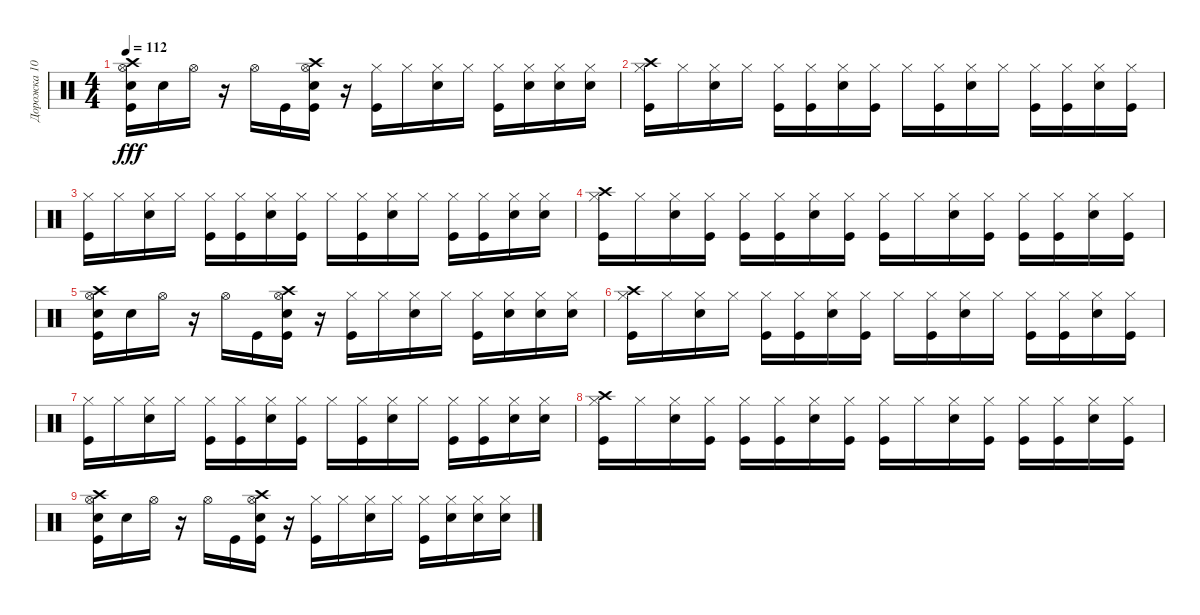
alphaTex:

\track ("Дорожка 10" "Дорожка 10") {instrument percussion}
\staff {score}
\articulation defaults
\ts (4 4)
\tempo 112
\clef neutral
\ks c
("Kick (hit)" "Electric Snare (hit)" "Crash high (hit)" "Hi-Hat (open)").16{dy fff} "Electric Snare (hit)".16 "Hi-Hat (open)".16 r.16 "Hi-Hat (open)".16 "Kick (hit)".16 ("Crash high (hit)" "Electric Snare (hit)" "Kick (hit)" "Hi-Hat (open)").16 r.16 ("Kick (hit)" "Hi-Hat (closed)").16 "Hi-Hat (closed)".16 ("Electric Snare (hit)" "Hi-Hat (closed)").16 "Hi-Hat (closed)".16 ("Hi-Hat (closed)" "Kick (hit)").16 ("Electric Snare (hit)" "Hi-Hat (closed)").16 ("Electric Snare (hit)" "Hi-Hat (closed)").16 ("Electric Snare (hit)" "Hi-Hat (closed)").16 |
("Crash high (hit)" "Hi-Hat (closed)" "Kick (hit)").16 "Hi-Hat (closed)".16 ("Electric Snare (hit)" "Hi-Hat (closed)").16 "Hi-Hat (closed)".16 ("Kick (hit)" "Hi-Hat (closed)").16 ("Hi-Hat (closed)" "Kick (hit)").16 ("Electric Snare (hit)" "Hi-Hat (closed)").16 ("Kick (hit)" "Hi-Hat (closed)").16 "Hi-Hat (closed)".16 ("Hi-Hat (closed)" "Kick (hit)").16 ("Hi-Hat (closed)" "Electric Snare (hit)").16 "Hi-Hat (closed)".16 ("Kick (hit)" "Hi-Hat (closed)").16 ("Kick (hit)" "Hi-Hat (closed)").16 ("Electric Snare (hit)" "Hi-Hat (closed)").16 ("Kick (hit)" "Hi-Hat (closed)").16 |
("Kick (hit)" "Hi-Hat (closed)").16 "Hi-Hat (closed)".16 ("Electric Snare (hit)" "Hi-Hat (closed)").16 "Hi-Hat (closed)".16 ("Hi-Hat (closed)" "Kick (hit)").16 ("Kick (hit)" "Hi-Hat (closed)").16 ("Hi-Hat (closed)" "Electric Snare (hit)").16 ("Hi-Hat (closed)" "Kick (hit)").16 "Hi-Hat (closed)".16 ("Hi-Hat (closed)" "Kick (hit)").16 ("Hi-Hat (closed)" "Electric Snare (hit)").16 "Hi-Hat (closed)".16 ("Kick (hit)" "Hi-Hat (closed)").16 ("Kick (hit)" "Hi-Hat (closed)").16 ("Electric Snare (hit)" "Hi-Hat (closed)").16 ("Electric Snare (hit)" "Hi-Hat (closed)").16 |
("Kick (hit)" "Hi-Hat (closed)" "Crash high (hit)").16 "Hi-Hat (closed)".16 ("Hi-Hat (closed)" "Electric Snare (hit)").16 ("Kick (hit)" "Hi-Hat (closed)").16 ("Kick (hit)" "Hi-Hat (closed)").16 ("Hi-Hat (closed)" "Kick (hit)").16 ("Hi-Hat (closed)" "Electric Snare (hit)").16 ("Hi-Hat (closed)" "Kick (hit)").16 ("Hi-Hat (closed)" "Kick (hit)").16 "Hi-Hat (closed)".16 ("Hi-Hat (closed)" "Electric Snare (hit)").16 ("Hi-Hat (closed)" "Kick (hit)").16 ("Kick (hit)" "Hi-Hat (closed)").16 ("Kick (hit)" "Hi-Hat (closed)").16 ("Hi-Hat (closed)" "Electric Snare (hit)").16 ("Kick (hit)" "Hi-Hat (closed)").16 |
("Kick (hit)" "Electric Snare (hit)" "Crash high (hit)" "Hi-Hat (open)").16 "Electric Snare (hit)".16 "Hi-Hat (open)".16 r.16 "Hi-Hat (open)".16 "Kick (hit)".16 ("Crash high (hit)" "Electric Snare (hit)" "Kick (hit)" "Hi-Hat (open)").16 r.16 ("Kick (hit)" "Hi-Hat (closed)").16 "Hi-Hat (closed)".16 ("Electric Snare (hit)" "Hi-Hat (closed)").16 "Hi-Hat (closed)".16 ("Hi-Hat (closed)" "Kick (hit)").16 ("Electric Snare (hit)" "Hi-Hat (closed)").16 ("Electric Snare (hit)" "Hi-Hat (closed)").16 ("Electric Snare (hit)" "Hi-Hat (closed)").16 |
("Crash high (hit)" "Hi-Hat (closed)" "Kick (hit)").16 "Hi-Hat (closed)".16 ("Electric Snare (hit)" "Hi-Hat (closed)").16 "Hi-Hat (closed)".16 ("Kick (hit)" "Hi-Hat (closed)").16 ("Hi-Hat (closed)" "Kick (hit)").16 ("Electric Snare (hit)" "Hi-Hat (closed)").16 ("Kick (hit)" "Hi-Hat (closed)").16 "Hi-Hat (closed)".16 ("Hi-Hat (closed)" "Kick (hit)").16 ("Hi-Hat (closed)" "Electric Snare (hit)").16 "Hi-Hat (closed)".16 ("Kick (hit)" "Hi-Hat (closed)").16 ("Kick (hit)" "Hi-Hat (closed)").16 ("Electric Snare (hit)" "Hi-Hat (closed)").16 ("Kick (hit)" "Hi-Hat (closed)").16 |
("Kick (hit)" "Hi-Hat (closed)").16 "Hi-Hat (closed)".16 ("Electric Snare (hit)" "Hi-Hat (closed)").16 "Hi-Hat (closed)".16 ("Hi-Hat (closed)" "Kick (hit)").16 ("Kick (hit)" "Hi-Hat (closed)").16 ("Hi-Hat (closed)" "Electric Snare (hit)").16 ("Hi-Hat (closed)" "Kick (hit)").16 "Hi-Hat (closed)".16 ("Hi-Hat (closed)" "Kick (hit)").16 ("Hi-Hat (closed)" "Electric Snare (hit)").16 "Hi-Hat (closed)".16 ("Kick (hit)" "Hi-Hat (closed)").16 ("Kick (hit)" "Hi-Hat (closed)").16 ("Electric Snare (hit)" "Hi-Hat (closed)").16 ("Electric Snare (hit)" "Hi-Hat (closed)").16 |
("Kick (hit)" "Hi-Hat (closed)" "Crash high (hit)").16 "Hi-Hat (closed)".16 ("Hi-Hat (closed)" "Electric Snare (hit)").16 ("Kick (hit)" "Hi-Hat (closed)").16 ("Kick (hit)" "Hi-Hat (closed)").16 ("Hi-Hat (closed)" "Kick (hit)").16 ("Hi-Hat (closed)" "Electric Snare (hit)").16 ("Hi-Hat (closed)" "Kick (hit)").16 ("Hi-Hat (closed)" "Kick (hit)").16 "Hi-Hat (closed)".16 ("Hi-Hat (closed)" "Electric Snare (hit)").16 ("Hi-Hat (closed)" "Kick (hit)").16 ("Kick (hit)" "Hi-Hat (closed)").16 ("Kick (hit)" "Hi-Hat (closed)").16 ("Hi-Hat (closed)" "Electric Snare (hit)").16 ("Kick (hit)" "Hi-Hat (closed)").16 |
("Kick (hit)" "Electric Snare (hit)" "Crash high (hit)" "Hi-Hat (open)").16 "Electric Snare (hit)".16 "Hi-Hat (open)".16 r.16 "Hi-Hat (open)".16 "Kick (hit)".16 ("Crash high (hit)" "Electric Snare (hit)" "Kick (hit)" "Hi-Hat (open)").16 r.16 ("Kick (hit)" "Hi-Hat (closed)").16 "Hi-Hat (closed)".16 ("Electric Snare (hit)" "Hi-Hat (closed)").16 "Hi-Hat (closed)".16 ("Hi-Hat (closed)" "Kick (hit)").16 ("Electric Snare (hit)" "Hi-Hat (closed)").16 ("Electric Snare (hit)" "Hi-Hat (closed)").16 ("Electric Snare (hit)" "Hi-Hat (closed)").16
